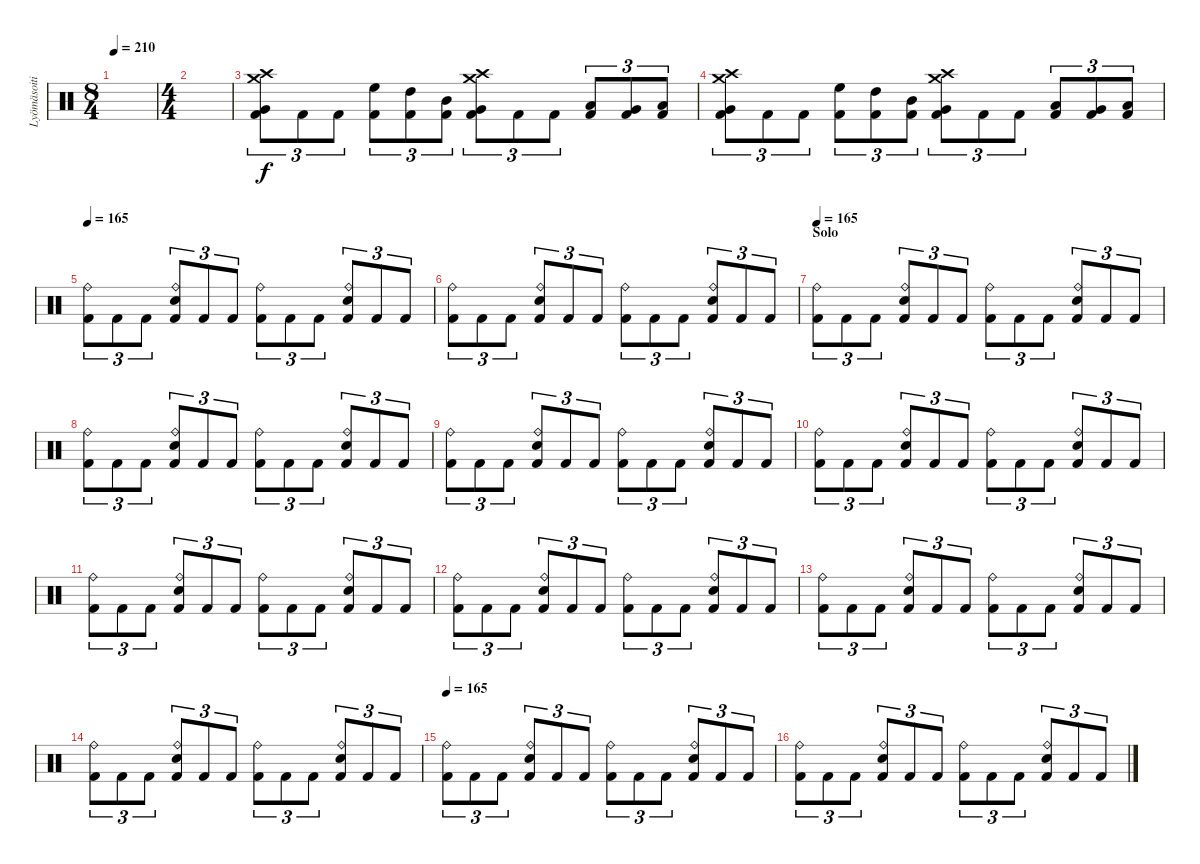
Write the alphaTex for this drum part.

\track ("Lyömäsoitin" "Lyömäsoiti") {instrument percussion}
\staff {score}
\articulation defaults
\ts (8 4)
\tempo 210
\clef neutral
\ks c
|
\ts (4 4)
|
("Crash high (hit)" "Crash medium (hit)" "Very Low Tom (hit)" "Kick (hit) 2").8{tu (3 2)} "Kick (hit) 2".8{tu (3 2)} "Kick (hit) 2".8{tu (3 2)} ("High Floor Tom (hit)" "Kick (hit) 2").8{tu (3 2)} ("High Tom (hit)" "Kick (hit) 2").8{tu (3 2)} ("Mid Tom (hit)" "Kick (hit) 2").8{tu (3 2)} ("Crash high (hit)" "Crash medium (hit)" "Very Low Tom (hit)" "Kick (hit) 2").8{tu (3 2)} "Kick (hit) 2".8{tu (3 2)} "Kick (hit) 2".8{tu (3 2)} ("Low Tom (hit)" "Kick (hit) 2").8{tu (3 2)} ("Very Low Tom (hit)" "Kick (hit) 2").8{tu (3 2)} ("Low Floor Tom (hit)" "Kick (hit) 2").8{tu (3 2)} |
("Crash high (hit)" "Crash medium (hit)" "Very Low Tom (hit)" "Kick (hit) 2").8{tu (3 2)} "Kick (hit) 2".8{tu (3 2)} "Kick (hit) 2".8{tu (3 2)} ("High Floor Tom (hit)" "Kick (hit) 2").8{tu (3 2)} ("High Tom (hit)" "Kick (hit) 2").8{tu (3 2)} ("Mid Tom (hit)" "Kick (hit) 2").8{tu (3 2)} ("Crash high (hit)" "Crash medium (hit)" "Very Low Tom (hit)" "Kick (hit) 2").8{tu (3 2)} "Kick (hit) 2".8{tu (3 2)} "Kick (hit) 2".8{tu (3 2)} ("Low Tom (hit)" "Kick (hit) 2").8{tu (3 2)} ("Very Low Tom (hit)" "Kick (hit) 2").8{tu (3 2)} ("Low Floor Tom (hit)" "Kick (hit) 2").8{tu (3 2)} |
\tempo 165
("Ride (bell)" "Kick (hit) 2").8{tu (3 2)} "Kick (hit) 2".8{tu (3 2)} "Kick (hit) 2".8{tu (3 2)} ("Ride (bell)" "Snare (hit) 2" "Kick (hit) 2").8{tu (3 2)} "Kick (hit) 2".8{tu (3 2)} "Kick (hit) 2".8{tu (3 2)} ("Ride (bell)" "Kick (hit) 2").8{tu (3 2)} "Kick (hit) 2".8{tu (3 2)} "Kick (hit) 2".8{tu (3 2)} ("Ride (bell)" "Snare (hit) 2" "Kick (hit) 2").8{tu (3 2)} "Kick (hit) 2".8{tu (3 2)} "Kick (hit) 2".8{tu (3 2)} |
("Ride (bell)" "Kick (hit) 2").8{tu (3 2)} "Kick (hit) 2".8{tu (3 2)} "Kick (hit) 2".8{tu (3 2)} ("Ride (bell)" "Snare (hit) 2" "Kick (hit) 2").8{tu (3 2)} "Kick (hit) 2".8{tu (3 2)} "Kick (hit) 2".8{tu (3 2)} ("Ride (bell)" "Kick (hit) 2").8{tu (3 2)} "Kick (hit) 2".8{tu (3 2)} "Kick (hit) 2".8{tu (3 2)} ("Ride (bell)" "Snare (hit) 2" "Kick (hit) 2").8{tu (3 2)} "Kick (hit) 2".8{tu (3 2)} "Kick (hit) 2".8{tu (3 2)} |
\section ("" "Solo")
\tempo 165
("Ride (bell)" "Kick (hit) 2").8{tu (3 2)} "Kick (hit) 2".8{tu (3 2)} "Kick (hit) 2".8{tu (3 2)} ("Ride (bell)" "Snare (hit) 2" "Kick (hit) 2").8{tu (3 2)} "Kick (hit) 2".8{tu (3 2)} "Kick (hit) 2".8{tu (3 2)} ("Ride (bell)" "Kick (hit) 2").8{tu (3 2)} "Kick (hit) 2".8{tu (3 2)} "Kick (hit) 2".8{tu (3 2)} ("Ride (bell)" "Snare (hit) 2" "Kick (hit) 2").8{tu (3 2)} "Kick (hit) 2".8{tu (3 2)} "Kick (hit) 2".8{tu (3 2)} |
("Ride (bell)" "Kick (hit) 2").8{tu (3 2)} "Kick (hit) 2".8{tu (3 2)} "Kick (hit) 2".8{tu (3 2)} ("Ride (bell)" "Snare (hit) 2" "Kick (hit) 2").8{tu (3 2)} "Kick (hit) 2".8{tu (3 2)} "Kick (hit) 2".8{tu (3 2)} ("Ride (bell)" "Kick (hit) 2").8{tu (3 2)} "Kick (hit) 2".8{tu (3 2)} "Kick (hit) 2".8{tu (3 2)} ("Ride (bell)" "Snare (hit) 2" "Kick (hit) 2").8{tu (3 2)} "Kick (hit) 2".8{tu (3 2)} "Kick (hit) 2".8{tu (3 2)} |
("Ride (bell)" "Kick (hit) 2").8{tu (3 2)} "Kick (hit) 2".8{tu (3 2)} "Kick (hit) 2".8{tu (3 2)} ("Ride (bell)" "Snare (hit) 2" "Kick (hit) 2").8{tu (3 2)} "Kick (hit) 2".8{tu (3 2)} "Kick (hit) 2".8{tu (3 2)} ("Ride (bell)" "Kick (hit) 2").8{tu (3 2)} "Kick (hit) 2".8{tu (3 2)} "Kick (hit) 2".8{tu (3 2)} ("Ride (bell)" "Snare (hit) 2" "Kick (hit) 2").8{tu (3 2)} "Kick (hit) 2".8{tu (3 2)} "Kick (hit) 2".8{tu (3 2)} |
("Ride (bell)" "Kick (hit) 2").8{tu (3 2)} "Kick (hit) 2".8{tu (3 2)} "Kick (hit) 2".8{tu (3 2)} ("Ride (bell)" "Snare (hit) 2" "Kick (hit) 2").8{tu (3 2)} "Kick (hit) 2".8{tu (3 2)} "Kick (hit) 2".8{tu (3 2)} ("Ride (bell)" "Kick (hit) 2").8{tu (3 2)} "Kick (hit) 2".8{tu (3 2)} "Kick (hit) 2".8{tu (3 2)} ("Ride (bell)" "Snare (hit) 2" "Kick (hit) 2").8{tu (3 2)} "Kick (hit) 2".8{tu (3 2)} "Kick (hit) 2".8{tu (3 2)} |
("Ride (bell)" "Kick (hit) 2").8{tu (3 2)} "Kick (hit) 2".8{tu (3 2)} "Kick (hit) 2".8{tu (3 2)} ("Ride (bell)" "Snare (hit) 2" "Kick (hit) 2").8{tu (3 2)} "Kick (hit) 2".8{tu (3 2)} "Kick (hit) 2".8{tu (3 2)} ("Ride (bell)" "Kick (hit) 2").8{tu (3 2)} "Kick (hit) 2".8{tu (3 2)} "Kick (hit) 2".8{tu (3 2)} ("Ride (bell)" "Snare (hit) 2" "Kick (hit) 2").8{tu (3 2)} "Kick (hit) 2".8{tu (3 2)} "Kick (hit) 2".8{tu (3 2)} |
("Ride (bell)" "Kick (hit) 2").8{tu (3 2)} "Kick (hit) 2".8{tu (3 2)} "Kick (hit) 2".8{tu (3 2)} ("Ride (bell)" "Snare (hit) 2" "Kick (hit) 2").8{tu (3 2)} "Kick (hit) 2".8{tu (3 2)} "Kick (hit) 2".8{tu (3 2)} ("Ride (bell)" "Kick (hit) 2").8{tu (3 2)} "Kick (hit) 2".8{tu (3 2)} "Kick (hit) 2".8{tu (3 2)} ("Ride (bell)" "Snare (hit) 2" "Kick (hit) 2").8{tu (3 2)} "Kick (hit) 2".8{tu (3 2)} "Kick (hit) 2".8{tu (3 2)} |
("Ride (bell)" "Kick (hit) 2").8{tu (3 2)} "Kick (hit) 2".8{tu (3 2)} "Kick (hit) 2".8{tu (3 2)} ("Ride (bell)" "Snare (hit) 2" "Kick (hit) 2").8{tu (3 2)} "Kick (hit) 2".8{tu (3 2)} "Kick (hit) 2".8{tu (3 2)} ("Ride (bell)" "Kick (hit) 2").8{tu (3 2)} "Kick (hit) 2".8{tu (3 2)} "Kick (hit) 2".8{tu (3 2)} ("Ride (bell)" "Snare (hit) 2" "Kick (hit) 2").8{tu (3 2)} "Kick (hit) 2".8{tu (3 2)} "Kick (hit) 2".8{tu (3 2)} |
("Ride (bell)" "Kick (hit) 2").8{tu (3 2)} "Kick (hit) 2".8{tu (3 2)} "Kick (hit) 2".8{tu (3 2)} ("Ride (bell)" "Snare (hit) 2" "Kick (hit) 2").8{tu (3 2)} "Kick (hit) 2".8{tu (3 2)} "Kick (hit) 2".8{tu (3 2)} ("Ride (bell)" "Kick (hit) 2").8{tu (3 2)} "Kick (hit) 2".8{tu (3 2)} "Kick (hit) 2".8{tu (3 2)} ("Ride (bell)" "Snare (hit) 2" "Kick (hit) 2").8{tu (3 2)} "Kick (hit) 2".8{tu (3 2)} "Kick (hit) 2".8{tu (3 2)} |
\tempo 165
("Ride (bell)" "Kick (hit) 2").8{tu (3 2)} "Kick (hit) 2".8{tu (3 2)} "Kick (hit) 2".8{tu (3 2)} ("Ride (bell)" "Snare (hit) 2" "Kick (hit) 2").8{tu (3 2)} "Kick (hit) 2".8{tu (3 2)} "Kick (hit) 2".8{tu (3 2)} ("Ride (bell)" "Kick (hit) 2").8{tu (3 2)} "Kick (hit) 2".8{tu (3 2)} "Kick (hit) 2".8{tu (3 2)} ("Ride (bell)" "Snare (hit) 2" "Kick (hit) 2").8{tu (3 2)} "Kick (hit) 2".8{tu (3 2)} "Kick (hit) 2".8{tu (3 2)} |
("Ride (bell)" "Kick (hit) 2").8{tu (3 2)} "Kick (hit) 2".8{tu (3 2)} "Kick (hit) 2".8{tu (3 2)} ("Ride (bell)" "Snare (hit) 2" "Kick (hit) 2").8{tu (3 2)} "Kick (hit) 2".8{tu (3 2)} "Kick (hit) 2".8{tu (3 2)} ("Ride (bell)" "Kick (hit) 2").8{tu (3 2)} "Kick (hit) 2".8{tu (3 2)} "Kick (hit) 2".8{tu (3 2)} ("Ride (bell)" "Snare (hit) 2" "Kick (hit) 2").8{tu (3 2)} "Kick (hit) 2".8{tu (3 2)} "Kick (hit) 2".8{tu (3 2)}
